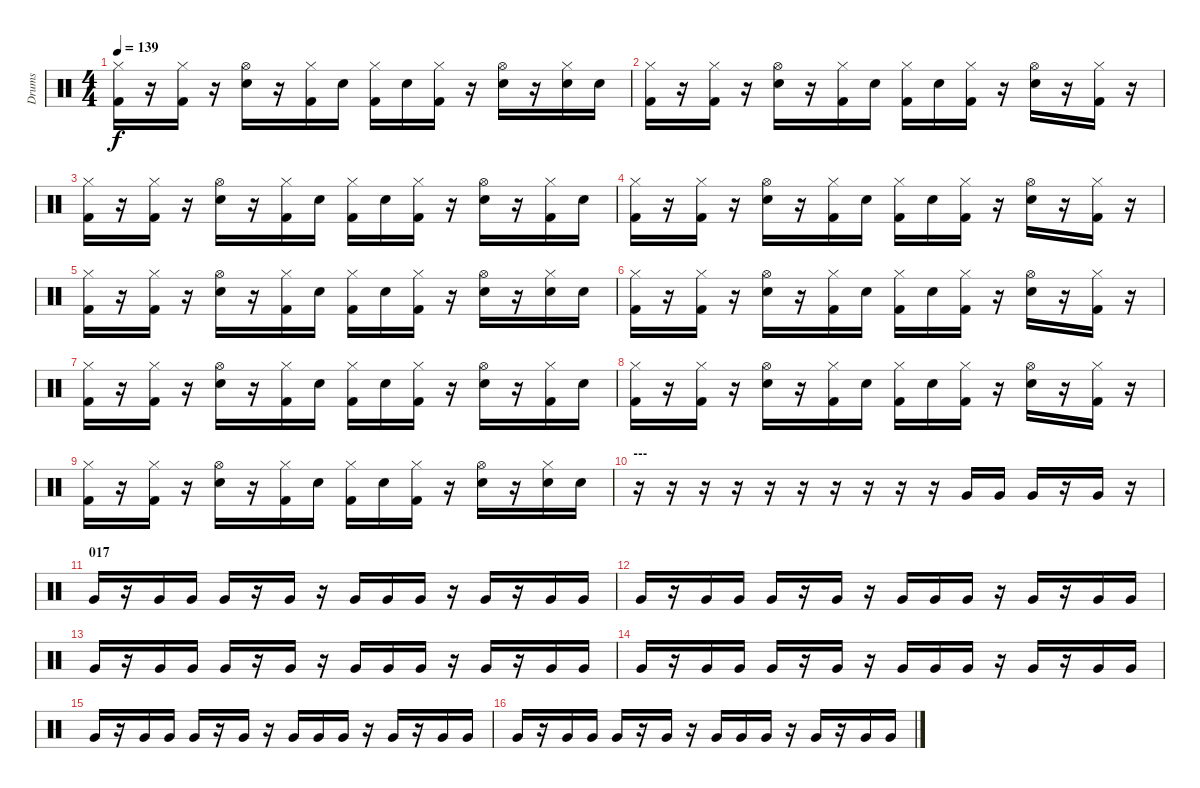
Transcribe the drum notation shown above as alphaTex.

\track ("Drums" "Drums") {instrument percussion}
\staff {score}
\articulation defaults
\ts (4 4)
\tempo 139
\clef neutral
\ks c
("Kick (hit) 2" "Hi-Hat (closed)").16{dy f} r.16 ("Kick (hit) 2" "Hi-Hat (closed)").16 r.16 ("Electric Snare (hit)" "Hi-Hat (open)").16 r.16 ("Kick (hit) 2" "Hi-Hat (closed)").16 "Electric Snare (hit)".16 ("Kick (hit) 2" "Hi-Hat (closed)").16 "Electric Snare (hit)".16 ("Kick (hit) 2" "Hi-Hat (closed)").16 r.16 ("Electric Snare (hit)" "Hi-Hat (open)").16 r.16 ("Electric Snare (hit)" "Hi-Hat (closed)").16 "Electric Snare (hit)".16 |
("Kick (hit) 2" "Hi-Hat (closed)").16 r.16 ("Kick (hit) 2" "Hi-Hat (closed)").16 r.16 ("Electric Snare (hit)" "Hi-Hat (open)").16 r.16 ("Kick (hit) 2" "Hi-Hat (closed)").16 "Electric Snare (hit)".16 ("Kick (hit) 2" "Hi-Hat (closed)").16 "Electric Snare (hit)".16 ("Kick (hit) 2" "Hi-Hat (closed)").16 r.16 ("Electric Snare (hit)" "Hi-Hat (open)").16 r.16 ("Kick (hit) 2" "Hi-Hat (closed)").16 r.16 |
("Kick (hit) 2" "Hi-Hat (closed)").16 r.16 ("Kick (hit) 2" "Hi-Hat (closed)").16 r.16 ("Electric Snare (hit)" "Hi-Hat (open)").16 r.16 ("Kick (hit) 2" "Hi-Hat (closed)").16 "Electric Snare (hit)".16 ("Kick (hit) 2" "Hi-Hat (closed)").16 "Electric Snare (hit)".16 ("Kick (hit) 2" "Hi-Hat (closed)").16 r.16 ("Electric Snare (hit)" "Hi-Hat (open)").16 r.16 ("Kick (hit) 2" "Hi-Hat (closed)").16 "Electric Snare (hit)".16 |
("Kick (hit) 2" "Hi-Hat (closed)").16 r.16 ("Kick (hit) 2" "Hi-Hat (closed)").16 r.16 ("Electric Snare (hit)" "Hi-Hat (open)").16 r.16 ("Kick (hit) 2" "Hi-Hat (closed)").16 "Electric Snare (hit)".16 ("Kick (hit) 2" "Hi-Hat (closed)").16 "Electric Snare (hit)".16 ("Kick (hit) 2" "Hi-Hat (closed)").16 r.16 ("Electric Snare (hit)" "Hi-Hat (open)").16 r.16 ("Kick (hit) 2" "Hi-Hat (closed)").16 r.16 |
("Kick (hit) 2" "Hi-Hat (closed)").16 r.16 ("Kick (hit) 2" "Hi-Hat (closed)").16 r.16 ("Electric Snare (hit)" "Hi-Hat (open)").16 r.16 ("Kick (hit) 2" "Hi-Hat (closed)").16 "Electric Snare (hit)".16 ("Kick (hit) 2" "Hi-Hat (closed)").16 "Electric Snare (hit)".16 ("Kick (hit) 2" "Hi-Hat (closed)").16 r.16 ("Electric Snare (hit)" "Hi-Hat (open)").16 r.16 ("Electric Snare (hit)" "Hi-Hat (closed)").16 "Electric Snare (hit)".16 |
("Kick (hit) 2" "Hi-Hat (closed)").16 r.16 ("Kick (hit) 2" "Hi-Hat (closed)").16 r.16 ("Electric Snare (hit)" "Hi-Hat (open)").16 r.16 ("Kick (hit) 2" "Hi-Hat (closed)").16 "Electric Snare (hit)".16 ("Kick (hit) 2" "Hi-Hat (closed)").16 "Electric Snare (hit)".16 ("Kick (hit) 2" "Hi-Hat (closed)").16 r.16 ("Electric Snare (hit)" "Hi-Hat (open)").16 r.16 ("Kick (hit) 2" "Hi-Hat (closed)").16 r.16 |
("Kick (hit) 2" "Hi-Hat (closed)").16 r.16 ("Kick (hit) 2" "Hi-Hat (closed)").16 r.16 ("Electric Snare (hit)" "Hi-Hat (open)").16 r.16 ("Kick (hit) 2" "Hi-Hat (closed)").16 "Electric Snare (hit)".16 ("Kick (hit) 2" "Hi-Hat (closed)").16 "Electric Snare (hit)".16 ("Kick (hit) 2" "Hi-Hat (closed)").16 r.16 ("Electric Snare (hit)" "Hi-Hat (open)").16 r.16 ("Kick (hit) 2" "Hi-Hat (closed)").16 "Electric Snare (hit)".16 |
("Kick (hit) 2" "Hi-Hat (closed)").16 r.16 ("Kick (hit) 2" "Hi-Hat (closed)").16 r.16 ("Electric Snare (hit)" "Hi-Hat (open)").16 r.16 ("Kick (hit) 2" "Hi-Hat (closed)").16 "Electric Snare (hit)".16 ("Kick (hit) 2" "Hi-Hat (closed)").16 "Electric Snare (hit)".16 ("Kick (hit) 2" "Hi-Hat (closed)").16 r.16 ("Electric Snare (hit)" "Hi-Hat (open)").16 r.16 ("Kick (hit) 2" "Hi-Hat (closed)").16 r.16 |
("Kick (hit) 2" "Hi-Hat (closed)").16 r.16 ("Kick (hit) 2" "Hi-Hat (closed)").16 r.16 ("Electric Snare (hit)" "Hi-Hat (open)").16 r.16 ("Kick (hit) 2" "Hi-Hat (closed)").16 "Electric Snare (hit)".16 ("Kick (hit) 2" "Hi-Hat (closed)").16 "Electric Snare (hit)".16 ("Kick (hit) 2" "Hi-Hat (closed)").16 r.16 ("Electric Snare (hit)" "Hi-Hat (open)").16 r.16 ("Electric Snare (hit)" "Hi-Hat (closed)").16 "Electric Snare (hit)".16 |
\section ("" "---")
r.16 r.16 r.16 r.16 r.16 r.16 r.16 r.16 r.16 r.16 "Very Low Tom (hit)".16 "Very Low Tom (hit)".16 "Very Low Tom (hit)".16 r.16 "Very Low Tom (hit)".16 r.16 |
\section ("" "017")
"Very Low Tom (hit)".16 r.16 "Very Low Tom (hit)".16 "Very Low Tom (hit)".16 "Very Low Tom (hit)".16 r.16 "Very Low Tom (hit)".16 r.16 "Very Low Tom (hit)".16 "Very Low Tom (hit)".16 "Very Low Tom (hit)".16 r.16 "Very Low Tom (hit)".16 r.16 "Very Low Tom (hit)".16 "Very Low Tom (hit)".16 |
"Very Low Tom (hit)".16 r.16 "Very Low Tom (hit)".16 "Very Low Tom (hit)".16 "Very Low Tom (hit)".16 r.16 "Very Low Tom (hit)".16 r.16 "Very Low Tom (hit)".16 "Very Low Tom (hit)".16 "Very Low Tom (hit)".16 r.16 "Very Low Tom (hit)".16 r.16 "Very Low Tom (hit)".16 "Very Low Tom (hit)".16 |
"Very Low Tom (hit)".16 r.16 "Very Low Tom (hit)".16 "Very Low Tom (hit)".16 "Very Low Tom (hit)".16 r.16 "Very Low Tom (hit)".16 r.16 "Very Low Tom (hit)".16 "Very Low Tom (hit)".16 "Very Low Tom (hit)".16 r.16 "Very Low Tom (hit)".16 r.16 "Very Low Tom (hit)".16 "Very Low Tom (hit)".16 |
"Very Low Tom (hit)".16 r.16 "Very Low Tom (hit)".16 "Very Low Tom (hit)".16 "Very Low Tom (hit)".16 r.16 "Very Low Tom (hit)".16 r.16 "Very Low Tom (hit)".16 "Very Low Tom (hit)".16 "Very Low Tom (hit)".16 r.16 "Very Low Tom (hit)".16 r.16 "Very Low Tom (hit)".16 "Very Low Tom (hit)".16 |
"Very Low Tom (hit)".16 r.16 "Very Low Tom (hit)".16 "Very Low Tom (hit)".16 "Very Low Tom (hit)".16 r.16 "Very Low Tom (hit)".16 r.16 "Very Low Tom (hit)".16 "Very Low Tom (hit)".16 "Very Low Tom (hit)".16 r.16 "Very Low Tom (hit)".16 r.16 "Very Low Tom (hit)".16 "Very Low Tom (hit)".16 |
"Very Low Tom (hit)".16 r.16 "Very Low Tom (hit)".16 "Very Low Tom (hit)".16 "Very Low Tom (hit)".16 r.16 "Very Low Tom (hit)".16 r.16 "Very Low Tom (hit)".16 "Very Low Tom (hit)".16 "Very Low Tom (hit)".16 r.16 "Very Low Tom (hit)".16 r.16 "Very Low Tom (hit)".16 "Very Low Tom (hit)".16
